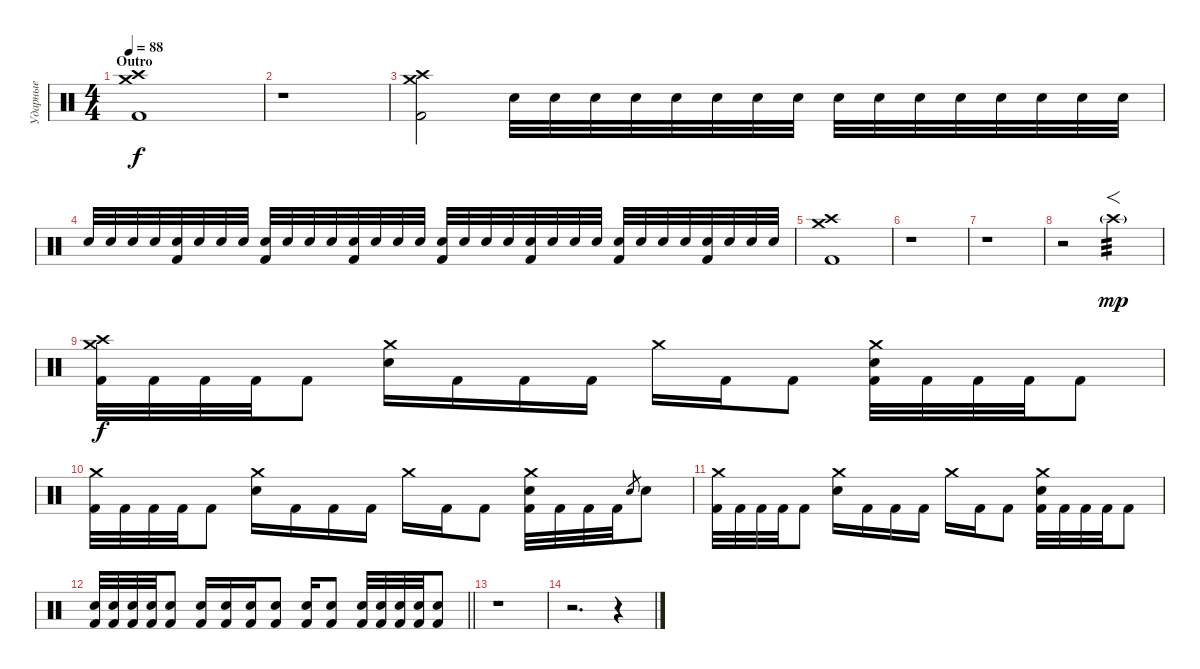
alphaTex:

\track ("Ударные" "Ударные") {instrument percussion}
\staff {score}
\articulation defaults
\ts (4 4)
\section ("" "Outro")
\tempo 88
\clef neutral
\ks c
("Crash high (hit)" "Crash medium (hit)" "Kick (hit) 2").1{dy f} |
r.1 |
("Crash high (hit)" "Crash medium (hit)" "Kick (hit) 2").2{volume 0} "Electric Snare (hit)".32{volume 16} "Electric Snare (hit)".32 "Electric Snare (hit)".32 "Electric Snare (hit)".32 "Electric Snare (hit)".32 "Electric Snare (hit)".32 "Electric Snare (hit)".32 "Electric Snare (hit)".32 "Electric Snare (hit)".32 "Electric Snare (hit)".32 "Electric Snare (hit)".32 "Electric Snare (hit)".32 "Electric Snare (hit)".32 "Electric Snare (hit)".32 "Electric Snare (hit)".32 "Electric Snare (hit)".32 |
"Electric Snare (hit)".32 "Electric Snare (hit)".32 "Electric Snare (hit)".32 "Electric Snare (hit)".32 ("Electric Snare (hit)" "Kick (hit) 2").32 "Electric Snare (hit)".32 "Electric Snare (hit)".32 "Electric Snare (hit)".32 ("Electric Snare (hit)" "Kick (hit) 2").32 "Electric Snare (hit)".32 "Electric Snare (hit)".32 "Electric Snare (hit)".32 ("Electric Snare (hit)" "Kick (hit) 2").32 "Electric Snare (hit)".32 "Electric Snare (hit)".32 "Electric Snare (hit)".32 ("Electric Snare (hit)" "Kick (hit) 2").32 "Electric Snare (hit)".32 "Electric Snare (hit)".32 "Electric Snare (hit)".32 ("Electric Snare (hit)" "Kick (hit) 2").32 "Electric Snare (hit)".32 "Electric Snare (hit)".32 "Electric Snare (hit)".32 ("Electric Snare (hit)" "Kick (hit) 2").32 "Electric Snare (hit)".32 "Electric Snare (hit)".32 "Electric Snare (hit)".32 ("Electric Snare (hit)" "Kick (hit) 2").32 "Electric Snare (hit)".32 "Electric Snare (hit)".32 "Electric Snare (hit)".32 |
("Crash high (hit)" "Crash medium (hit)" "Kick (hit) 2").1 |
r.1 |
r.1 |
r.2 "Crash high (hit)"{g}.2{f tp 3 dy mp} |
("Crash medium (hit)" "Crash high (hit)" "Kick (hit) 2").32{dy f} "Kick (hit) 2".32 "Kick (hit) 2".32 "Kick (hit) 2".32 "Kick (hit) 2".8 ("Crash medium (hit)" "Electric Snare (hit)").16 "Kick (hit) 2".16 "Kick (hit) 2".16 "Kick (hit) 2".16 "Crash medium (hit)".16 "Kick (hit) 2".16 "Kick (hit) 2".8 ("Crash medium (hit)" "Electric Snare (hit)" "Kick (hit) 2").32 "Kick (hit) 2".32 "Kick (hit) 2".32 "Kick (hit) 2".32 "Kick (hit) 2".8 |
("Crash medium (hit)" "Kick (hit) 2").32 "Kick (hit) 2".32 "Kick (hit) 2".32 "Kick (hit) 2".32 "Kick (hit) 2".8 ("Crash medium (hit)" "Electric Snare (hit)").16 "Kick (hit) 2".16 "Kick (hit) 2".16 "Kick (hit) 2".16 "Crash medium (hit)".16 "Kick (hit) 2".16 "Kick (hit) 2".8 ("Crash medium (hit)" "Electric Snare (hit)" "Kick (hit) 2").32 "Kick (hit) 2".32 "Kick (hit) 2".32 "Kick (hit) 2".32 "Electric Snare (hit)".8{gr} "Electric Snare (hit)".8 |
("Crash medium (hit)" "Kick (hit) 2").32 "Kick (hit) 2".32 "Kick (hit) 2".32 "Kick (hit) 2".32 "Kick (hit) 2".8 ("Crash medium (hit)" "Electric Snare (hit)").16 "Kick (hit) 2".16 "Kick (hit) 2".16 "Kick (hit) 2".16 "Crash medium (hit)".16 "Kick (hit) 2".16 "Kick (hit) 2".8 ("Crash medium (hit)" "Electric Snare (hit)" "Kick (hit) 2").32 "Kick (hit) 2".32 "Kick (hit) 2".32 "Kick (hit) 2".32 "Kick (hit) 2".8 |
\barLineRight lightlight
("Electric Snare (hit)" "Kick (hit) 2").32 ("Electric Snare (hit)" "Kick (hit) 2").32 ("Electric Snare (hit)" "Kick (hit) 2").32 ("Electric Snare (hit)" "Kick (hit) 2").32 ("Electric Snare (hit)" "Kick (hit) 2").8 ("Electric Snare (hit)" "Kick (hit) 2").16 ("Electric Snare (hit)" "Kick (hit) 2").16 ("Electric Snare (hit)" "Kick (hit) 2").16 ("Electric Snare (hit)" "Kick (hit) 2").8 ("Electric Snare (hit)" "Kick (hit) 2").16 ("Electric Snare (hit)" "Kick (hit) 2").8 ("Electric Snare (hit)" "Kick (hit) 2").32 ("Electric Snare (hit)" "Kick (hit) 2").32 ("Electric Snare (hit)" "Kick (hit) 2").32 ("Electric Snare (hit)" "Kick (hit) 2").32 ("Electric Snare (hit)" "Kick (hit) 2").8 |
r.1 |
r.2{d} r.4
